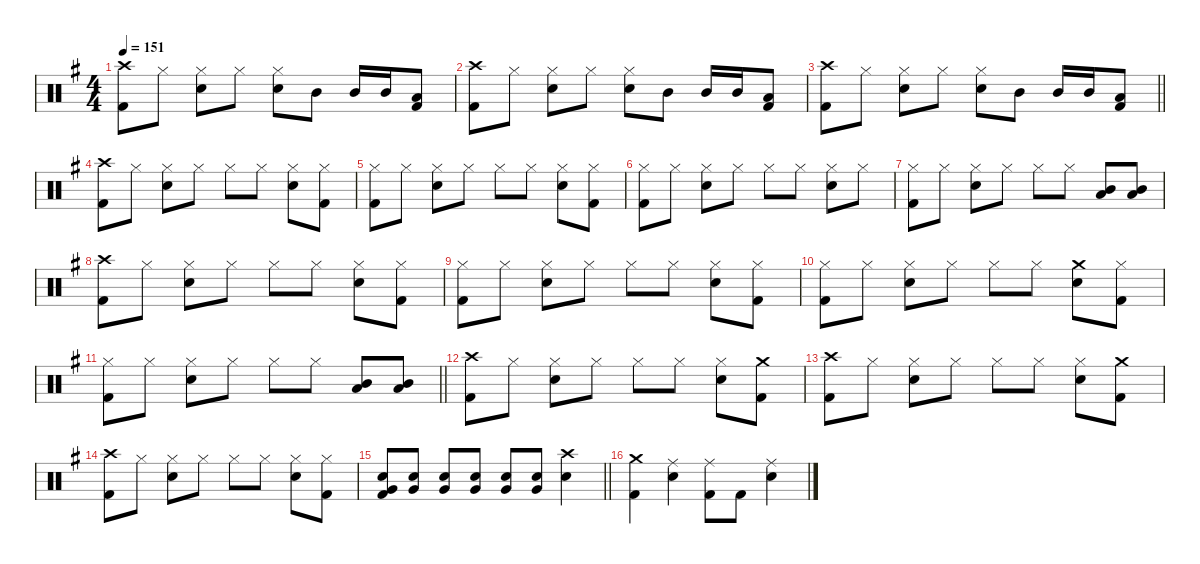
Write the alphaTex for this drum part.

\defaultSystemsLayout 4
\hideDynamics
\bracketExtendMode nobrackets
\singleTrackTrackNamePolicy hidden
\multiTrackTrackNamePolicy hidden
\otherSystemsTrackNameOrientation horizontal
\track ("Lars Ulrich" "drm.") {instrument percussion}
\staff {score}
\articulation defaults
\ts (4 4)
\tempo 151
\clef neutral
\ks eminor
("Crash high (hit)"{acc forcenatural} "Kick (hit) 2"{acc forcenatural}).8{dy f beam Down} "Hi-Hat (closed)"{acc forcenatural}.8{beam Down} ("Hi-Hat (closed)"{acc forcenatural} "Snare (hit) 2"{acc forcenatural}).8{beam Down} "Hi-Hat (closed)"{acc forcenatural}.8{beam Down} ("Hi-Hat (closed)"{acc forcenatural} "Snare (hit) 2"{acc forcenatural}).8{beam Down} "Mid Tom (hit)"{acc forcenatural}.8{beam Down} "Mid Tom (hit)"{acc forcenatural}.16{beam Up} "Mid Tom (hit)"{acc forcenatural}.16{beam Up} ("Low Tom (hit)"{acc forcenatural} "Kick (hit) 2"{acc forcenatural}).8{beam Up} |
("Crash high (hit)"{acc forcenatural} "Kick (hit) 2"{acc forcenatural}).8{beam Down} "Hi-Hat (closed)"{acc forcenatural}.8{beam Down} ("Hi-Hat (closed)"{acc forcenatural} "Snare (hit) 2"{acc forcenatural}).8{beam Down} "Hi-Hat (closed)"{acc forcenatural}.8{beam Down} ("Hi-Hat (closed)"{acc forcenatural} "Snare (hit) 2"{acc forcenatural}).8{beam Down} "Mid Tom (hit)"{acc forcenatural}.8{beam Down} "Mid Tom (hit)"{acc forcenatural}.16{beam Up} "Mid Tom (hit)"{acc forcenatural}.16{beam Up} ("Low Tom (hit)"{acc forcenatural} "Kick (hit) 2"{acc forcenatural}).8{beam Up} |
\barLineRight lightlight
("Crash high (hit)"{acc forcenatural} "Kick (hit) 2"{acc forcenatural}).8{beam Down} "Hi-Hat (closed)"{acc forcenatural}.8{beam Down} ("Hi-Hat (closed)"{acc forcenatural} "Snare (hit) 2"{acc forcenatural}).8{beam Down} "Hi-Hat (closed)"{acc forcenatural}.8{beam Down} ("Hi-Hat (closed)"{acc forcenatural} "Snare (hit) 2"{acc forcenatural}).8{beam Down} "Mid Tom (hit)"{acc forcenatural}.8{beam Down} "Mid Tom (hit)"{acc forcenatural}.16{beam Up} "Mid Tom (hit)"{acc forcenatural}.16{beam Up} ("Low Tom (hit)"{acc forcenatural} "Kick (hit) 2"{acc forcenatural}).8{beam Up} |
("Crash high (hit)"{acc forcenatural} "Kick (hit) 2"{acc forcenatural}).8{beam Down} "Hi-Hat (closed)"{acc forcenatural}.8{beam Down} ("Hi-Hat (closed)"{acc forcenatural} "Snare (hit) 2"{acc forcenatural}).8{beam Down} "Hi-Hat (closed)"{acc forcenatural}.8{beam Down} "Hi-Hat (closed)"{acc forcenatural}.8{beam Down} "Hi-Hat (closed)"{acc forcenatural}.8{beam Down} ("Hi-Hat (closed)"{acc forcenatural} "Snare (hit) 2"{acc forcenatural}).8{beam Down} ("Hi-Hat (closed)"{acc forcenatural} "Kick (hit) 2"{acc forcenatural}).8{beam Down} |
("Hi-Hat (closed)"{acc forcenatural} "Kick (hit) 2"{acc forcenatural}).8{beam Down} "Hi-Hat (closed)"{acc forcenatural}.8{beam Down} ("Hi-Hat (closed)"{acc forcenatural} "Snare (hit) 2"{acc forcenatural}).8{beam Down} "Hi-Hat (closed)"{acc forcenatural}.8{beam Down} "Hi-Hat (closed)"{acc forcenatural}.8{beam Down} "Hi-Hat (closed)"{acc forcenatural}.8{beam Down} ("Hi-Hat (closed)"{acc forcenatural} "Snare (hit) 2"{acc forcenatural}).8{beam Down} ("Hi-Hat (closed)"{acc forcenatural} "Kick (hit) 2"{acc forcenatural}).8{beam Down} |
("Hi-Hat (closed)"{acc forcenatural} "Kick (hit) 2"{acc forcenatural}).8{beam Down} "Hi-Hat (closed)"{acc forcenatural}.8{beam Down} ("Hi-Hat (closed)"{acc forcenatural} "Snare (hit) 2"{acc forcenatural}).8{beam Down} "Hi-Hat (closed)"{acc forcenatural}.8{beam Down} "Hi-Hat (closed)"{acc forcenatural}.8{beam Down} "Hi-Hat (closed)"{acc forcenatural}.8{beam Down} ("Hi-Hat (closed)"{acc forcenatural} "Snare (hit) 2"{acc forcenatural}).8{beam Down} "Hi-Hat (closed)"{acc forcenatural}.8{beam Down} |
("Hi-Hat (closed)"{acc forcenatural} "Kick (hit) 2"{acc forcenatural}).8{beam Down} "Hi-Hat (closed)"{acc forcenatural}.8{beam Down} ("Hi-Hat (closed)"{acc forcenatural} "Snare (hit) 2"{acc forcenatural}).8{beam Down} "Hi-Hat (closed)"{acc forcenatural}.8{beam Down} "Hi-Hat (closed)"{acc forcenatural}.8{beam Down} "Hi-Hat (closed)"{acc forcenatural}.8{beam Down} ("Low Tom (hit)"{acc forcenatural} "Mid Tom (hit)"{acc forcenatural}).8{beam Up} ("Low Tom (hit)"{acc forcenatural} "Mid Tom (hit)"{acc forcenatural}).8{beam Up} |
("Crash high (hit)"{acc forcenatural} "Kick (hit) 2"{acc forcenatural}).8{beam Down} "Hi-Hat (closed)"{acc forcenatural}.8{beam Down} ("Hi-Hat (closed)"{acc forcenatural} "Snare (hit) 2"{acc forcenatural}).8{beam Down} "Hi-Hat (closed)"{acc forcenatural}.8{beam Down} "Hi-Hat (closed)"{acc forcenatural}.8{beam Down} "Hi-Hat (closed)"{acc forcenatural}.8{beam Down} ("Hi-Hat (closed)"{acc forcenatural} "Snare (hit) 2"{acc forcenatural}).8{beam Down} ("Hi-Hat (closed)"{acc forcenatural} "Kick (hit) 2"{acc forcenatural}).8{beam Down} |
("Hi-Hat (closed)"{acc forcenatural} "Kick (hit) 2"{acc forcenatural}).8{beam Down} "Hi-Hat (closed)"{acc forcenatural}.8{beam Down} ("Hi-Hat (closed)"{acc forcenatural} "Snare (hit) 2"{acc forcenatural}).8{beam Down} "Hi-Hat (closed)"{acc forcenatural}.8{beam Down} "Hi-Hat (closed)"{acc forcenatural}.8{beam Down} "Hi-Hat (closed)"{acc forcenatural}.8{beam Down} ("Hi-Hat (closed)"{acc forcenatural} "Snare (hit) 2"{acc forcenatural}).8{beam Down} ("Hi-Hat (closed)"{acc forcenatural} "Kick (hit) 2"{acc forcenatural}).8{beam Down} |
("Hi-Hat (closed)"{acc forcenatural} "Kick (hit) 2"{acc forcenatural}).8{beam Down} "Hi-Hat (closed)"{acc forcenatural}.8{beam Down} ("Hi-Hat (closed)"{acc forcenatural} "Snare (hit) 2"{acc forcenatural}).8{beam Down} "Hi-Hat (closed)"{acc forcenatural}.8{beam Down} "Hi-Hat (closed)"{acc forcenatural}.8{beam Down} "Hi-Hat (closed)"{acc forcenatural}.8{beam Down} ("Crash medium (hit)"{acc forcenatural} "Snare (hit) 2"{acc forcenatural}).8{beam Down} ("Hi-Hat (closed)"{acc forcenatural} "Kick (hit) 2"{acc forcenatural}).8{beam Down} |
\barLineRight lightlight
("Hi-Hat (closed)"{acc forcenatural} "Kick (hit) 2"{acc forcenatural}).8{beam Down} "Hi-Hat (closed)"{acc forcenatural}.8{beam Down} ("Hi-Hat (closed)"{acc forcenatural} "Snare (hit) 2"{acc forcenatural}).8{beam Down} "Hi-Hat (closed)"{acc forcenatural}.8{beam Down} "Hi-Hat (closed)"{acc forcenatural}.8{beam Down} "Hi-Hat (closed)"{acc forcenatural}.8{beam Down} ("Low Tom (hit)"{acc forcenatural} "Mid Tom (hit)"{acc forcenatural}).8{beam Up} ("Low Tom (hit)"{acc forcenatural} "Mid Tom (hit)"{acc forcenatural}).8{beam Up} |
("Crash high (hit)"{acc forcenatural} "Kick (hit) 2"{acc forcenatural}).8{beam Down} "Hi-Hat (closed)"{acc forcenatural}.8{beam Down} ("Hi-Hat (closed)"{acc forcenatural} "Snare (hit) 2"{acc forcenatural}).8{beam Down} "Hi-Hat (closed)"{acc forcenatural}.8{beam Down} "Hi-Hat (closed)"{acc forcenatural}.8{beam Down} "Hi-Hat (closed)"{acc forcenatural}.8{beam Down} ("Hi-Hat (closed)"{acc forcenatural} "Snare (hit) 2"{acc forcenatural}).8{beam Down} ("Crash medium (hit)"{acc forcenatural} "Kick (hit) 2"{acc forcenatural}).8{beam Down} |
("Crash high (hit)"{acc forcenatural} "Kick (hit) 2"{acc forcenatural}).8{beam Down} "Hi-Hat (closed)"{acc forcenatural}.8{beam Down} ("Hi-Hat (closed)"{acc forcenatural} "Snare (hit) 2"{acc forcenatural}).8{beam Down} "Hi-Hat (closed)"{acc forcenatural}.8{beam Down} "Hi-Hat (closed)"{acc forcenatural}.8{beam Down} "Hi-Hat (closed)"{acc forcenatural}.8{beam Down} ("Hi-Hat (closed)"{acc forcenatural} "Snare (hit) 2"{acc forcenatural}).8{beam Down} ("Crash medium (hit)"{acc forcenatural} "Kick (hit) 2"{acc forcenatural}).8{beam Down} |
("Crash high (hit)"{acc forcenatural} "Kick (hit) 2"{acc forcenatural}).8{beam Down} "Hi-Hat (closed)"{acc forcenatural}.8{beam Down} ("Hi-Hat (closed)"{acc forcenatural} "Snare (hit) 2"{acc forcenatural}).8{beam Down} "Hi-Hat (closed)"{acc forcenatural}.8{beam Down} "Hi-Hat (closed)"{acc forcenatural}.8{beam Down} "Hi-Hat (closed)"{acc forcenatural}.8{beam Down} ("Hi-Hat (closed)"{acc forcenatural} "Snare (hit) 2"{acc forcenatural}).8{beam Down} ("Hi-Hat (closed)"{acc forcenatural} "Kick (hit) 2"{acc forcenatural}).8{beam Down} |
\barLineRight lightlight
("Very Low Tom (hit)"{acc forcenatural} "Snare (hit) 2"{acc forcenatural} "Kick (hit) 2"{acc forcenatural}).8{beam Up} ("Very Low Tom (hit)"{acc forcenatural} "Snare (hit) 2"{acc forcenatural}).8{beam Up} ("Very Low Tom (hit)"{acc forcenatural} "Snare (hit) 2"{acc forcenatural}).8{beam Up} ("Very Low Tom (hit)"{acc forcenatural} "Snare (hit) 2"{acc forcenatural}).8{beam Up} ("Very Low Tom (hit)"{acc forcenatural} "Snare (hit) 2"{acc forcenatural}).8{beam Up} ("Very Low Tom (hit)"{acc forcenatural} "Snare (hit) 2"{acc forcenatural}).8{beam Up} ("Crash high (hit)"{acc forcenatural} "Snare (hit) 2"{acc forcenatural}).4{beam Down} |
("Crash medium (hit)"{acc forcenatural} "Kick (hit) 2"{acc forcenatural}).4{beam Down} ("Ride (middle)"{acc forcenatural} "Snare (hit) 2"{acc forcenatural}).4{beam Down} ("Ride (middle)"{acc forcenatural} "Kick (hit) 2"{acc forcenatural}).8{beam Down} "Kick (hit) 2"{acc forcenatural}.8{beam Down} ("Ride (middle)"{acc forcenatural} "Snare (hit) 2"{acc forcenatural}).4{beam Down}
